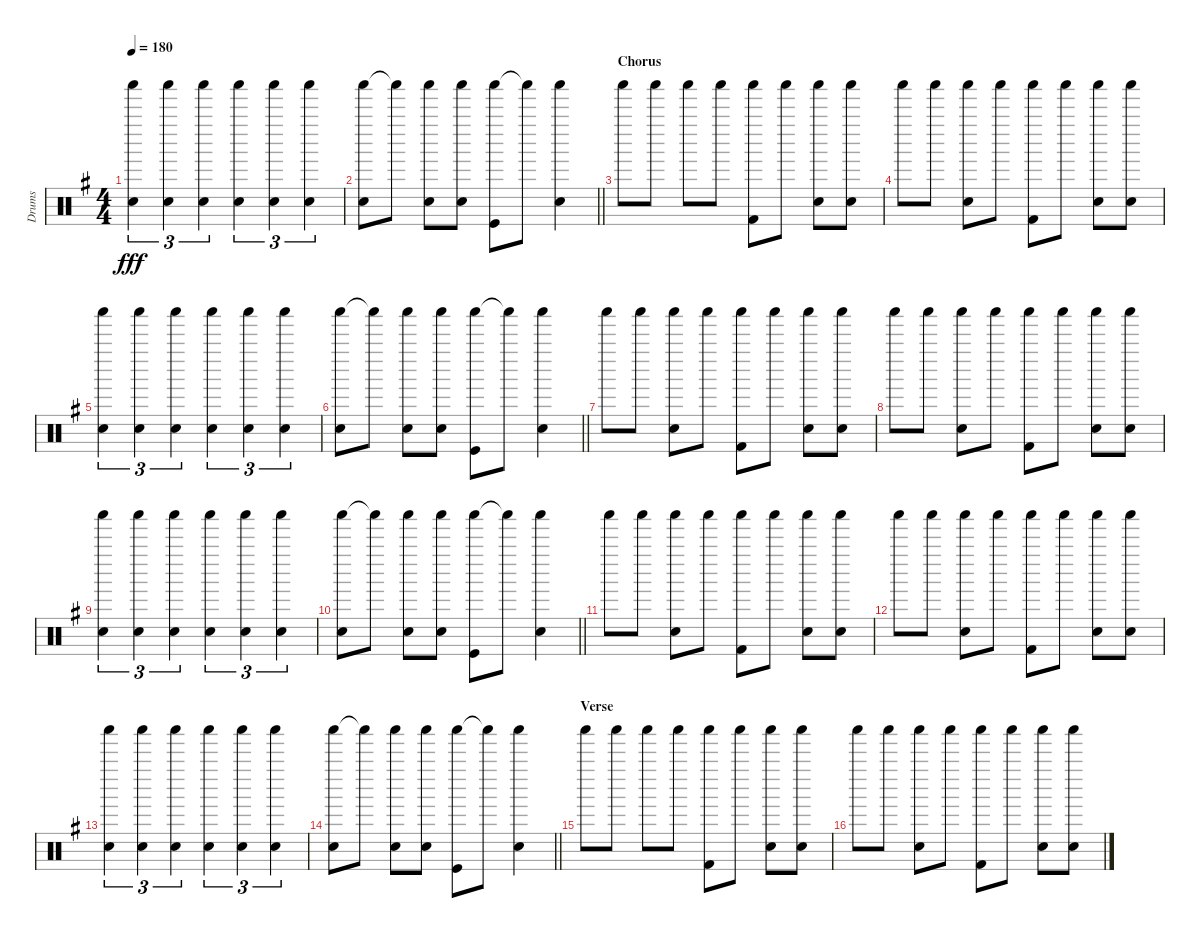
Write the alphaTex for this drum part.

\track ("Drums" "Drums") {instrument percussion}
\staff {score}
\articulation defaults
\ts (4 4)
\tempo 180
\clef neutral
\ks eminor
("Shaker (hit)" "Snare (hit) 2").4{tu (3 2) dy fff} ("Shaker (hit)" "Snare (hit) 2").4{tu (3 2)} ("Shaker (hit)" "Snare (hit) 2").4{tu (3 2)} ("Shaker (hit)" "Snare (hit) 2").4{tu (3 2)} ("Shaker (hit)" "Snare (hit) 2").4{tu (3 2)} ("Shaker (hit)" "Snare (hit) 2").4{tu (3 2)} |
\barLineRight lightlight
("Shaker (hit)" "Snare (hit) 2").8 "Shaker (hit)"{t}.8 ("Shaker (hit)" "Snare (hit) 2").8 ("Shaker (hit)" "Snare (hit) 2").8 ("Shaker (hit)" "Kick (hit)").8 "Shaker (hit)"{t}.8 ("Shaker (hit)" "Snare (hit) 2").4 |
\section ("" "Chorus")
"Shaker (hit)".8 "Shaker (hit)".8 "Shaker (hit)".8 "Shaker (hit)".8 ("Shaker (hit)" "Kick (hit) 2").8 "Shaker (hit)".8 ("Shaker (hit)" "Snare (hit) 2").8 ("Shaker (hit)" "Snare (hit) 2").8 |
"Shaker (hit)".8 "Shaker (hit)".8 ("Shaker (hit)" "Snare (hit) 2").8 "Shaker (hit)".8 ("Shaker (hit)" "Kick (hit) 2").8 "Shaker (hit)".8 ("Shaker (hit)" "Snare (hit) 2").8 ("Shaker (hit)" "Snare (hit) 2").8 |
("Shaker (hit)" "Snare (hit) 2").4{tu (3 2)} ("Shaker (hit)" "Snare (hit) 2").4{tu (3 2)} ("Shaker (hit)" "Snare (hit) 2").4{tu (3 2)} ("Shaker (hit)" "Snare (hit) 2").4{tu (3 2)} ("Shaker (hit)" "Snare (hit) 2").4{tu (3 2)} ("Shaker (hit)" "Snare (hit) 2").4{tu (3 2)} |
\barLineRight lightlight
("Shaker (hit)" "Snare (hit) 2").8 "Shaker (hit)"{t}.8 ("Shaker (hit)" "Snare (hit) 2").8 ("Shaker (hit)" "Snare (hit) 2").8 ("Shaker (hit)" "Kick (hit)").8 "Shaker (hit)"{t}.8 ("Shaker (hit)" "Snare (hit) 2").4 |
"Shaker (hit)".8 "Shaker (hit)".8 ("Shaker (hit)" "Snare (hit) 2").8 "Shaker (hit)".8 ("Shaker (hit)" "Kick (hit) 2").8 "Shaker (hit)".8 ("Shaker (hit)" "Snare (hit) 2").8 ("Shaker (hit)" "Snare (hit) 2").8 |
"Shaker (hit)".8 "Shaker (hit)".8 ("Shaker (hit)" "Snare (hit) 2").8 "Shaker (hit)".8 ("Shaker (hit)" "Kick (hit) 2").8 "Shaker (hit)".8 ("Shaker (hit)" "Snare (hit) 2").8 ("Shaker (hit)" "Snare (hit) 2").8 |
("Shaker (hit)" "Snare (hit) 2").4{tu (3 2)} ("Shaker (hit)" "Snare (hit) 2").4{tu (3 2)} ("Shaker (hit)" "Snare (hit) 2").4{tu (3 2)} ("Shaker (hit)" "Snare (hit) 2").4{tu (3 2)} ("Shaker (hit)" "Snare (hit) 2").4{tu (3 2)} ("Shaker (hit)" "Snare (hit) 2").4{tu (3 2)} |
\barLineRight lightlight
("Shaker (hit)" "Snare (hit) 2").8 "Shaker (hit)"{t}.8 ("Shaker (hit)" "Snare (hit) 2").8 ("Shaker (hit)" "Snare (hit) 2").8 ("Shaker (hit)" "Kick (hit)").8 "Shaker (hit)"{t}.8 ("Shaker (hit)" "Snare (hit) 2").4 |
"Shaker (hit)".8 "Shaker (hit)".8 ("Shaker (hit)" "Snare (hit) 2").8 "Shaker (hit)".8 ("Shaker (hit)" "Kick (hit) 2").8 "Shaker (hit)".8 ("Shaker (hit)" "Snare (hit) 2").8 ("Shaker (hit)" "Snare (hit) 2").8 |
"Shaker (hit)".8 "Shaker (hit)".8 ("Shaker (hit)" "Snare (hit) 2").8 "Shaker (hit)".8 ("Shaker (hit)" "Kick (hit) 2").8 "Shaker (hit)".8 ("Shaker (hit)" "Snare (hit) 2").8 ("Shaker (hit)" "Snare (hit) 2").8 |
("Shaker (hit)" "Snare (hit) 2").4{tu (3 2)} ("Shaker (hit)" "Snare (hit) 2").4{tu (3 2)} ("Shaker (hit)" "Snare (hit) 2").4{tu (3 2)} ("Shaker (hit)" "Snare (hit) 2").4{tu (3 2)} ("Shaker (hit)" "Snare (hit) 2").4{tu (3 2)} ("Shaker (hit)" "Snare (hit) 2").4{tu (3 2)} |
\barLineRight lightlight
("Shaker (hit)" "Snare (hit) 2").8 "Shaker (hit)"{t}.8 ("Shaker (hit)" "Snare (hit) 2").8 ("Shaker (hit)" "Snare (hit) 2").8 ("Shaker (hit)" "Kick (hit)").8 "Shaker (hit)"{t}.8 ("Shaker (hit)" "Snare (hit) 2").4 |
\section ("" "Verse")
"Shaker (hit)".8 "Shaker (hit)".8 "Shaker (hit)".8 "Shaker (hit)".8 ("Shaker (hit)" "Kick (hit) 2").8 "Shaker (hit)".8 ("Shaker (hit)" "Snare (hit) 2").8 ("Shaker (hit)" "Snare (hit) 2").8 |
"Shaker (hit)".8 "Shaker (hit)".8 ("Shaker (hit)" "Snare (hit) 2").8 "Shaker (hit)".8 ("Shaker (hit)" "Kick (hit) 2").8 "Shaker (hit)".8 ("Shaker (hit)" "Snare (hit) 2").8 ("Shaker (hit)" "Snare (hit) 2").8
